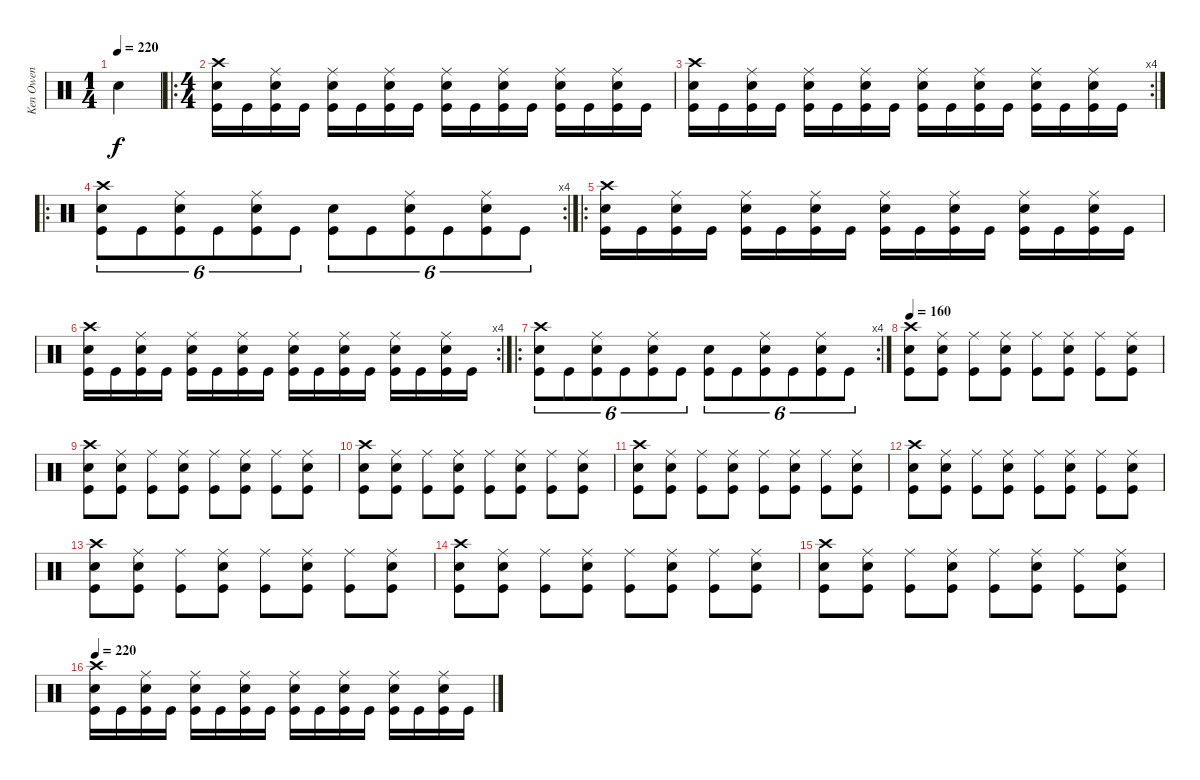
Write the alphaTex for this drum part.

\track ("Ken Owen" "Ken Owen") {instrument percussion}
\staff {score}
\articulation defaults
\ts (1 4)
\tempo 220
\clef neutral
\ks c "Snare (hit) 2".4{dy f}
|
\ro
\ts (4 4)
("Crash high (hit)" "Snare (hit) 2" "Kick (hit)").16 "Kick (hit)".16 ("Ride (middle)" "Snare (hit) 2" "Kick (hit)").16 "Kick (hit)".16 ("Ride (middle)" "Snare (hit) 2" "Kick (hit)").16 "Kick (hit)".16 ("Ride (middle)" "Snare (hit) 2" "Kick (hit)").16 "Kick (hit)".16 ("Ride (middle)" "Snare (hit) 2" "Kick (hit)").16 "Kick (hit)".16 ("Ride (middle)" "Snare (hit) 2" "Kick (hit)").16 "Kick (hit)".16 ("Ride (middle)" "Snare (hit) 2" "Kick (hit)").16 "Kick (hit)".16 ("Ride (middle)" "Snare (hit) 2" "Kick (hit)").16 "Kick (hit)".16 |
\rc 4
("Crash high (hit)" "Snare (hit) 2" "Kick (hit)").16 "Kick (hit)".16 ("Ride (middle)" "Snare (hit) 2" "Kick (hit)").16 "Kick (hit)".16 ("Ride (middle)" "Snare (hit) 2" "Kick (hit)").16 "Kick (hit)".16 ("Ride (middle)" "Snare (hit) 2" "Kick (hit)").16 "Kick (hit)".16 ("Ride (middle)" "Snare (hit) 2" "Kick (hit)").16 "Kick (hit)".16 ("Ride (middle)" "Snare (hit) 2" "Kick (hit)").16 "Kick (hit)".16 ("Ride (middle)" "Snare (hit) 2" "Kick (hit)").16 "Kick (hit)".16 ("Ride (middle)" "Snare (hit) 2" "Kick (hit)").16 "Kick (hit)".16 |
\ro
\rc 4
("Crash high (hit)" "Snare (hit) 2" "Kick (hit)").8{tu (6 4)} "Kick (hit)".8{tu (6 4)} ("Ride (middle)" "Snare (hit) 2" "Kick (hit)").8{tu (6 4)} "Kick (hit)".8{tu (6 4)} ("Ride (middle)" "Snare (hit) 2" "Kick (hit)").8{tu (6 4)} "Kick (hit)".8{tu (6 4)} ("Snare (hit) 2" "Kick (hit)").8{tu (6 4)} "Kick (hit)".8{tu (6 4)} ("Ride (middle)" "Snare (hit) 2" "Kick (hit)").8{tu (6 4)} "Kick (hit)".8{tu (6 4)} ("Ride (middle)" "Snare (hit) 2" "Kick (hit)").8{tu (6 4)} "Kick (hit)".8{tu (6 4)} |
\ro
("Crash high (hit)" "Snare (hit) 2" "Kick (hit)").16 "Kick (hit)".16 ("Ride (middle)" "Snare (hit) 2" "Kick (hit)").16 "Kick (hit)".16 ("Ride (middle)" "Snare (hit) 2" "Kick (hit)").16 "Kick (hit)".16 ("Ride (middle)" "Snare (hit) 2" "Kick (hit)").16 "Kick (hit)".16 ("Ride (middle)" "Snare (hit) 2" "Kick (hit)").16 "Kick (hit)".16 ("Ride (middle)" "Snare (hit) 2" "Kick (hit)").16 "Kick (hit)".16 ("Ride (middle)" "Snare (hit) 2" "Kick (hit)").16 "Kick (hit)".16 ("Ride (middle)" "Snare (hit) 2" "Kick (hit)").16 "Kick (hit)".16 |
\rc 4
("Crash high (hit)" "Snare (hit) 2" "Kick (hit)").16 "Kick (hit)".16 ("Ride (middle)" "Snare (hit) 2" "Kick (hit)").16 "Kick (hit)".16 ("Ride (middle)" "Snare (hit) 2" "Kick (hit)").16 "Kick (hit)".16 ("Ride (middle)" "Snare (hit) 2" "Kick (hit)").16 "Kick (hit)".16 ("Ride (middle)" "Snare (hit) 2" "Kick (hit)").16 "Kick (hit)".16 ("Ride (middle)" "Snare (hit) 2" "Kick (hit)").16 "Kick (hit)".16 ("Ride (middle)" "Snare (hit) 2" "Kick (hit)").16 "Kick (hit)".16 ("Ride (middle)" "Snare (hit) 2" "Kick (hit)").16 "Kick (hit)".16 |
\ro
\rc 4
("Crash high (hit)" "Snare (hit) 2" "Kick (hit)").8{tu (6 4)} "Kick (hit)".8{tu (6 4)} ("Ride (middle)" "Snare (hit) 2" "Kick (hit)").8{tu (6 4)} "Kick (hit)".8{tu (6 4)} ("Ride (middle)" "Snare (hit) 2" "Kick (hit)").8{tu (6 4)} "Kick (hit)".8{tu (6 4)} ("Snare (hit) 2" "Kick (hit)").8{tu (6 4)} "Kick (hit)".8{tu (6 4)} ("Ride (middle)" "Snare (hit) 2" "Kick (hit)").8{tu (6 4)} "Kick (hit)".8{tu (6 4)} ("Ride (middle)" "Snare (hit) 2" "Kick (hit)").8{tu (6 4)} "Kick (hit)".8{tu (6 4)} |
\tempo 160
("Crash high (hit)" "Snare (hit) 2" "Kick (hit)").8 ("Ride (middle)" "Snare (hit) 2" "Kick (hit)").8 ("Ride (middle)" "Kick (hit)").8 ("Ride (middle)" "Snare (hit) 2" "Kick (hit)").8 ("Ride (middle)" "Kick (hit)").8 ("Ride (middle)" "Snare (hit) 2" "Kick (hit)").8 ("Ride (middle)" "Kick (hit)").8 ("Ride (middle)" "Snare (hit) 2" "Kick (hit)").8 |
("Crash high (hit)" "Snare (hit) 2" "Kick (hit)").8 ("Ride (middle)" "Snare (hit) 2" "Kick (hit)").8 ("Ride (middle)" "Kick (hit)").8 ("Ride (middle)" "Snare (hit) 2" "Kick (hit)").8 ("Ride (middle)" "Kick (hit)").8 ("Ride (middle)" "Snare (hit) 2" "Kick (hit)").8 ("Ride (middle)" "Kick (hit)").8 ("Ride (middle)" "Snare (hit) 2" "Kick (hit)").8 |
("Crash high (hit)" "Snare (hit) 2" "Kick (hit)").8 ("Ride (middle)" "Snare (hit) 2" "Kick (hit)").8 ("Ride (middle)" "Kick (hit)").8 ("Ride (middle)" "Snare (hit) 2" "Kick (hit)").8 ("Ride (middle)" "Kick (hit)").8 ("Ride (middle)" "Snare (hit) 2" "Kick (hit)").8 ("Ride (middle)" "Kick (hit)").8 ("Ride (middle)" "Snare (hit) 2" "Kick (hit)").8 |
("Crash high (hit)" "Snare (hit) 2" "Kick (hit)").8 ("Ride (middle)" "Snare (hit) 2" "Kick (hit)").8 ("Ride (middle)" "Kick (hit)").8 ("Ride (middle)" "Snare (hit) 2" "Kick (hit)").8 ("Ride (middle)" "Kick (hit)").8 ("Ride (middle)" "Snare (hit) 2" "Kick (hit)").8 ("Ride (middle)" "Kick (hit)").8 ("Ride (middle)" "Snare (hit) 2" "Kick (hit)").8 |
("Crash high (hit)" "Snare (hit) 2" "Kick (hit)").8 ("Ride (middle)" "Snare (hit) 2" "Kick (hit)").8 ("Ride (middle)" "Kick (hit)").8 ("Ride (middle)" "Snare (hit) 2" "Kick (hit)").8 ("Ride (middle)" "Kick (hit)").8 ("Ride (middle)" "Snare (hit) 2" "Kick (hit)").8 ("Ride (middle)" "Kick (hit)").8 ("Ride (middle)" "Snare (hit) 2" "Kick (hit)").8 |
("Crash high (hit)" "Snare (hit) 2" "Kick (hit)").8 ("Ride (middle)" "Snare (hit) 2" "Kick (hit)").8 ("Ride (middle)" "Kick (hit)").8 ("Ride (middle)" "Snare (hit) 2" "Kick (hit)").8 ("Ride (middle)" "Kick (hit)").8 ("Ride (middle)" "Snare (hit) 2" "Kick (hit)").8 ("Ride (middle)" "Kick (hit)").8 ("Ride (middle)" "Snare (hit) 2" "Kick (hit)").8 |
("Crash high (hit)" "Snare (hit) 2" "Kick (hit)").8 ("Ride (middle)" "Snare (hit) 2" "Kick (hit)").8 ("Ride (middle)" "Kick (hit)").8 ("Ride (middle)" "Snare (hit) 2" "Kick (hit)").8 ("Ride (middle)" "Kick (hit)").8 ("Ride (middle)" "Snare (hit) 2" "Kick (hit)").8 ("Ride (middle)" "Kick (hit)").8 ("Ride (middle)" "Snare (hit) 2" "Kick (hit)").8 |
("Crash high (hit)" "Snare (hit) 2" "Kick (hit)").8 ("Ride (middle)" "Snare (hit) 2" "Kick (hit)").8 ("Ride (middle)" "Kick (hit)").8 ("Ride (middle)" "Snare (hit) 2" "Kick (hit)").8 ("Ride (middle)" "Kick (hit)").8 ("Ride (middle)" "Snare (hit) 2" "Kick (hit)").8 ("Ride (middle)" "Kick (hit)").8 ("Ride (middle)" "Snare (hit) 2" "Kick (hit)").8 |
\tempo 220
("Crash high (hit)" "Snare (hit) 2" "Kick (hit)").16 "Kick (hit)".16 ("Ride (middle)" "Snare (hit) 2" "Kick (hit)").16 "Kick (hit)".16 ("Ride (middle)" "Snare (hit) 2" "Kick (hit)").16 "Kick (hit)".16 ("Ride (middle)" "Snare (hit) 2" "Kick (hit)").16 "Kick (hit)".16 ("Ride (middle)" "Snare (hit) 2" "Kick (hit)").16 "Kick (hit)".16 ("Ride (middle)" "Snare (hit) 2" "Kick (hit)").16 "Kick (hit)".16 ("Ride (middle)" "Snare (hit) 2" "Kick (hit)").16 "Kick (hit)".16 ("Ride (middle)" "Snare (hit) 2" "Kick (hit)").16 "Kick (hit)".16
